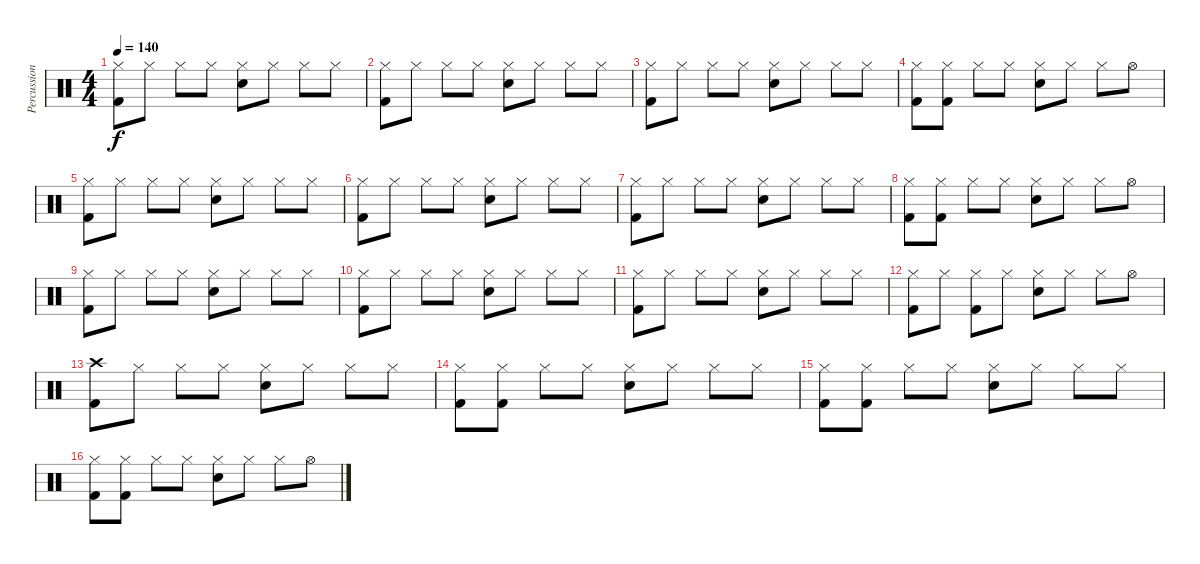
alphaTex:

\track ("Percussion" "Percussion") {instrument percussion}
\staff {score}
\articulation defaults
\ts (4 4)
\tempo 140
\clef neutral
\ks c
("Kick (hit) 2" "Hi-Hat (closed)").8{dy f} "Hi-Hat (closed)".8 "Hi-Hat (closed)".8 "Hi-Hat (closed)".8 ("Electric Snare (hit)" "Hi-Hat (closed)").8 "Hi-Hat (closed)".8 "Hi-Hat (closed)".8 "Hi-Hat (closed)".8 |
("Kick (hit) 2" "Hi-Hat (closed)").8 "Hi-Hat (closed)".8 "Hi-Hat (closed)".8 "Hi-Hat (closed)".8 ("Electric Snare (hit)" "Hi-Hat (closed)").8 "Hi-Hat (closed)".8 "Hi-Hat (closed)".8 "Hi-Hat (closed)".8 |
("Kick (hit) 2" "Hi-Hat (closed)").8 "Hi-Hat (closed)".8 "Hi-Hat (closed)".8 "Hi-Hat (closed)".8 ("Electric Snare (hit)" "Hi-Hat (closed)").8 "Hi-Hat (closed)".8 "Hi-Hat (closed)".8 "Hi-Hat (closed)".8 |
("Kick (hit) 2" "Hi-Hat (closed)").8 ("Hi-Hat (closed)" "Kick (hit) 2").8 "Hi-Hat (closed)".8 "Hi-Hat (closed)".8 ("Electric Snare (hit)" "Hi-Hat (closed)").8 "Hi-Hat (closed)".8 "Hi-Hat (closed)".8 "Hi-Hat (open)".8 |
("Kick (hit) 2" "Hi-Hat (closed)").8 "Hi-Hat (closed)".8 "Hi-Hat (closed)".8 "Hi-Hat (closed)".8 ("Electric Snare (hit)" "Hi-Hat (closed)").8 "Hi-Hat (closed)".8 "Hi-Hat (closed)".8 "Hi-Hat (closed)".8 |
("Kick (hit) 2" "Hi-Hat (closed)").8 "Hi-Hat (closed)".8 "Hi-Hat (closed)".8 "Hi-Hat (closed)".8 ("Electric Snare (hit)" "Hi-Hat (closed)").8 "Hi-Hat (closed)".8 "Hi-Hat (closed)".8 "Hi-Hat (closed)".8 |
("Kick (hit) 2" "Hi-Hat (closed)").8 "Hi-Hat (closed)".8 "Hi-Hat (closed)".8 "Hi-Hat (closed)".8 ("Electric Snare (hit)" "Hi-Hat (closed)").8 "Hi-Hat (closed)".8 "Hi-Hat (closed)".8 "Hi-Hat (closed)".8 |
("Kick (hit) 2" "Hi-Hat (closed)").8 ("Hi-Hat (closed)" "Kick (hit) 2").8 "Hi-Hat (closed)".8 "Hi-Hat (closed)".8 ("Electric Snare (hit)" "Hi-Hat (closed)").8 "Hi-Hat (closed)".8 "Hi-Hat (closed)".8 "Hi-Hat (open)".8 |
("Kick (hit) 2" "Hi-Hat (closed)").8 "Hi-Hat (closed)".8 "Hi-Hat (closed)".8 "Hi-Hat (closed)".8 ("Electric Snare (hit)" "Hi-Hat (closed)").8 "Hi-Hat (closed)".8 "Hi-Hat (closed)".8 "Hi-Hat (closed)".8 |
("Kick (hit) 2" "Hi-Hat (closed)").8 "Hi-Hat (closed)".8 "Hi-Hat (closed)".8 "Hi-Hat (closed)".8 ("Electric Snare (hit)" "Hi-Hat (closed)").8 "Hi-Hat (closed)".8 "Hi-Hat (closed)".8 "Hi-Hat (closed)".8 |
("Kick (hit) 2" "Hi-Hat (closed)").8 "Hi-Hat (closed)".8 "Hi-Hat (closed)".8 "Hi-Hat (closed)".8 ("Electric Snare (hit)" "Hi-Hat (closed)").8 "Hi-Hat (closed)".8 "Hi-Hat (closed)".8 "Hi-Hat (closed)".8 |
("Kick (hit) 2" "Hi-Hat (closed)").8 "Hi-Hat (closed)".8 ("Hi-Hat (closed)" "Kick (hit) 2").8{beam Down} "Hi-Hat (closed)".8{beam Down} ("Electric Snare (hit)" "Hi-Hat (closed)").8 "Hi-Hat (closed)".8 "Hi-Hat (closed)".8 "Hi-Hat (open)".8 |
("Kick (hit) 2" "Crash high (hit)").8 "Hi-Hat (closed)".8 "Hi-Hat (closed)".8 "Hi-Hat (closed)".8 ("Electric Snare (hit)" "Hi-Hat (closed)").8 "Hi-Hat (closed)".8 "Hi-Hat (closed)".8 "Hi-Hat (closed)".8 |
("Kick (hit) 2" "Hi-Hat (closed)").8 ("Hi-Hat (closed)" "Kick (hit) 2").8 "Hi-Hat (closed)".8 "Hi-Hat (closed)".8 ("Electric Snare (hit)" "Hi-Hat (closed)").8 "Hi-Hat (closed)".8 "Hi-Hat (closed)".8 "Hi-Hat (closed)".8 |
("Kick (hit) 2" "Hi-Hat (closed)").8 ("Hi-Hat (closed)" "Kick (hit) 2").8 "Hi-Hat (closed)".8 "Hi-Hat (closed)".8 ("Electric Snare (hit)" "Hi-Hat (closed)").8 "Hi-Hat (closed)".8 "Hi-Hat (closed)".8 "Hi-Hat (closed)".8 |
("Kick (hit) 2" "Hi-Hat (closed)").8 ("Hi-Hat (closed)" "Kick (hit) 2").8 "Hi-Hat (closed)".8 "Hi-Hat (closed)".8 ("Electric Snare (hit)" "Hi-Hat (closed)").8 "Hi-Hat (closed)".8 "Hi-Hat (closed)".8 "Hi-Hat (open)".8
